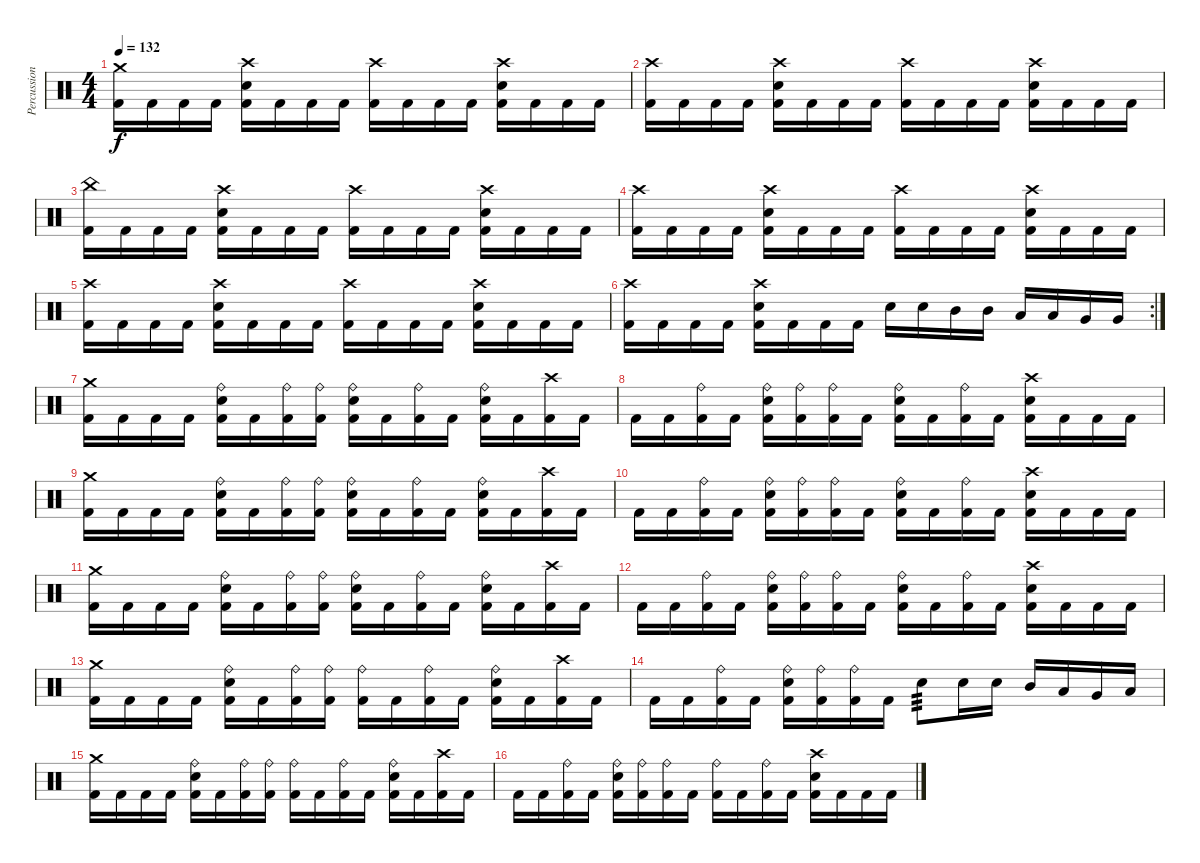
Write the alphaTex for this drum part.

\track ("Percussion" "Percussion") {instrument percussion}
\staff {score}
\articulation defaults
\ts (4 4)
\tempo 132
\clef neutral
\ks c
("Kick (hit) 2" "Crash medium (hit)").16{dy f} "Kick (hit) 2".16 "Kick (hit) 2".16 "Kick (hit) 2".16 ("Snare (hit) 2" "Kick (hit) 2" "Crash high (hit)").16 "Kick (hit) 2".16 "Kick (hit) 2".16 "Kick (hit) 2".16 ("Kick (hit) 2" "Crash high (hit)").16 "Kick (hit) 2".16 "Kick (hit) 2".16 "Kick (hit) 2".16 ("Snare (hit) 2" "Kick (hit) 2" "Crash high (hit)").16 "Kick (hit) 2".16 "Kick (hit) 2".16 "Kick (hit) 2".16 |
("Kick (hit) 2" "Crash high (hit)").16 "Kick (hit) 2".16 "Kick (hit) 2".16 "Kick (hit) 2".16 ("Snare (hit) 2" "Kick (hit) 2" "Crash high (hit)").16 "Kick (hit) 2".16 "Kick (hit) 2".16 "Kick (hit) 2".16 ("Kick (hit) 2" "Crash high (hit)").16 "Kick (hit) 2".16 "Kick (hit) 2".16 "Kick (hit) 2".16 ("Snare (hit) 2" "Kick (hit) 2" "Crash high (hit)").16 "Kick (hit) 2".16 "Kick (hit) 2".16 "Kick (hit) 2".16 |
("Kick (hit) 2" "China (hit)").16 "Kick (hit) 2".16 "Kick (hit) 2".16 "Kick (hit) 2".16 ("Snare (hit) 2" "Kick (hit) 2" "Crash high (hit)").16 "Kick (hit) 2".16 "Kick (hit) 2".16 "Kick (hit) 2".16 ("Kick (hit) 2" "Crash high (hit)").16 "Kick (hit) 2".16 "Kick (hit) 2".16 "Kick (hit) 2".16 ("Snare (hit) 2" "Kick (hit) 2" "Crash high (hit)").16 "Kick (hit) 2".16 "Kick (hit) 2".16 "Kick (hit) 2".16 |
("Kick (hit) 2" "Crash high (hit)").16 "Kick (hit) 2".16 "Kick (hit) 2".16 "Kick (hit) 2".16 ("Snare (hit) 2" "Kick (hit) 2" "Crash high (hit)").16 "Kick (hit) 2".16 "Kick (hit) 2".16 "Kick (hit) 2".16 ("Kick (hit) 2" "Crash high (hit)").16 "Kick (hit) 2".16 "Kick (hit) 2".16 "Kick (hit) 2".16 ("Snare (hit) 2" "Kick (hit) 2" "Crash high (hit)").16 "Kick (hit) 2".16 "Kick (hit) 2".16 "Kick (hit) 2".16 |
("Kick (hit) 2" "Crash high (hit)").16 "Kick (hit) 2".16 "Kick (hit) 2".16 "Kick (hit) 2".16 ("Snare (hit) 2" "Kick (hit) 2" "Crash high (hit)").16 "Kick (hit) 2".16 "Kick (hit) 2".16 "Kick (hit) 2".16 ("Kick (hit) 2" "Crash high (hit)").16 "Kick (hit) 2".16 "Kick (hit) 2".16 "Kick (hit) 2".16 ("Snare (hit) 2" "Kick (hit) 2" "Crash high (hit)").16 "Kick (hit) 2".16 "Kick (hit) 2".16 "Kick (hit) 2".16 |
\rc 2
("Kick (hit) 2" "Crash high (hit)").16 "Kick (hit) 2".16 "Kick (hit) 2".16 "Kick (hit) 2".16 ("Snare (hit) 2" "Kick (hit) 2" "Crash high (hit)").16 "Kick (hit) 2".16 "Kick (hit) 2".16 "Kick (hit) 2".16 "Snare (hit) 2".16 "Snare (hit) 2".16 "Mid Tom (hit)".16 "Mid Tom (hit)".16 "Low Tom (hit)".16 "Low Tom (hit)".16 "Very Low Tom (hit)".16 "Very Low Tom (hit)".16 |
("Kick (hit) 2" "Crash medium (hit)").16 "Kick (hit) 2".16 "Kick (hit) 2".16 "Kick (hit) 2".16 ("Snare (hit) 2" "Kick (hit) 2" "Ride (bell)").16 "Kick (hit) 2".16 ("Kick (hit) 2" "Ride (bell)").16 ("Kick (hit) 2" "Ride (bell)").16 ("Snare (hit) 2" "Kick (hit) 2" "Ride (bell)").16 "Kick (hit) 2".16 ("Kick (hit) 2" "Ride (bell)").16 "Kick (hit) 2".16 ("Snare (hit) 2" "Kick (hit) 2" "Ride (bell)").16 "Kick (hit) 2".16 ("Kick (hit) 2" "Crash high (hit)").16 "Kick (hit) 2".16 |
"Kick (hit) 2".16 "Kick (hit) 2".16 ("Kick (hit) 2" "Ride (bell)").16 "Kick (hit) 2".16 ("Snare (hit) 2" "Kick (hit) 2" "Ride (bell)").16 ("Kick (hit) 2" "Ride (bell)").16 ("Kick (hit) 2" "Ride (bell)").16 "Kick (hit) 2".16 ("Snare (hit) 2" "Kick (hit) 2" "Ride (bell)").16 "Kick (hit) 2".16 ("Kick (hit) 2" "Ride (bell)").16 "Kick (hit) 2".16 ("Snare (hit) 2" "Kick (hit) 2" "Crash high (hit)").16 "Kick (hit) 2".16 "Kick (hit) 2".16 "Kick (hit) 2".16 |
("Kick (hit) 2" "Crash medium (hit)").16 "Kick (hit) 2".16 "Kick (hit) 2".16 "Kick (hit) 2".16 ("Snare (hit) 2" "Kick (hit) 2" "Ride (bell)").16 "Kick (hit) 2".16 ("Kick (hit) 2" "Ride (bell)").16 ("Kick (hit) 2" "Ride (bell)").16 ("Snare (hit) 2" "Kick (hit) 2" "Ride (bell)").16 "Kick (hit) 2".16 ("Kick (hit) 2" "Ride (bell)").16 "Kick (hit) 2".16 ("Snare (hit) 2" "Kick (hit) 2" "Ride (bell)").16 "Kick (hit) 2".16 ("Kick (hit) 2" "Crash high (hit)").16 "Kick (hit) 2".16 |
"Kick (hit) 2".16 "Kick (hit) 2".16 ("Kick (hit) 2" "Ride (bell)").16 "Kick (hit) 2".16 ("Snare (hit) 2" "Kick (hit) 2" "Ride (bell)").16 ("Kick (hit) 2" "Ride (bell)").16 ("Kick (hit) 2" "Ride (bell)").16 "Kick (hit) 2".16 ("Snare (hit) 2" "Kick (hit) 2" "Ride (bell)").16 "Kick (hit) 2".16 ("Kick (hit) 2" "Ride (bell)").16 "Kick (hit) 2".16 ("Snare (hit) 2" "Kick (hit) 2" "Crash high (hit)").16 "Kick (hit) 2".16 "Kick (hit) 2".16 "Kick (hit) 2".16 |
("Kick (hit) 2" "Crash medium (hit)").16 "Kick (hit) 2".16 "Kick (hit) 2".16 "Kick (hit) 2".16 ("Snare (hit) 2" "Kick (hit) 2" "Ride (bell)").16 "Kick (hit) 2".16 ("Kick (hit) 2" "Ride (bell)").16 ("Kick (hit) 2" "Ride (bell)").16 ("Snare (hit) 2" "Kick (hit) 2" "Ride (bell)").16 "Kick (hit) 2".16 ("Kick (hit) 2" "Ride (bell)").16 "Kick (hit) 2".16 ("Snare (hit) 2" "Kick (hit) 2" "Ride (bell)").16 "Kick (hit) 2".16 ("Kick (hit) 2" "Crash high (hit)").16 "Kick (hit) 2".16 |
"Kick (hit) 2".16 "Kick (hit) 2".16 ("Kick (hit) 2" "Ride (bell)").16 "Kick (hit) 2".16 ("Snare (hit) 2" "Kick (hit) 2" "Ride (bell)").16 ("Kick (hit) 2" "Ride (bell)").16 ("Kick (hit) 2" "Ride (bell)").16 "Kick (hit) 2".16 ("Snare (hit) 2" "Kick (hit) 2" "Ride (bell)").16 "Kick (hit) 2".16 ("Kick (hit) 2" "Ride (bell)").16 "Kick (hit) 2".16 ("Snare (hit) 2" "Kick (hit) 2" "Crash high (hit)").16 "Kick (hit) 2".16 "Kick (hit) 2".16 "Kick (hit) 2".16 |
("Kick (hit) 2" "Crash medium (hit)").16 "Kick (hit) 2".16 "Kick (hit) 2".16 "Kick (hit) 2".16 ("Snare (hit) 2" "Kick (hit) 2" "Ride (bell)").16 "Kick (hit) 2".16 ("Kick (hit) 2" "Ride (bell)").16 ("Kick (hit) 2" "Ride (bell)").16 ("Kick (hit) 2" "Ride (bell)").16 "Kick (hit) 2".16 ("Kick (hit) 2" "Ride (bell)").16 "Kick (hit) 2".16 ("Snare (hit) 2" "Kick (hit) 2" "Ride (bell)").16 "Kick (hit) 2".16 ("Kick (hit) 2" "Crash high (hit)").16 "Kick (hit) 2".16 |
"Kick (hit) 2".16 "Kick (hit) 2".16 ("Kick (hit) 2" "Ride (bell)").16 "Kick (hit) 2".16 ("Snare (hit) 2" "Kick (hit) 2" "Ride (bell)").16 ("Kick (hit) 2" "Ride (bell)").16 ("Kick (hit) 2" "Ride (bell)").16 "Kick (hit) 2".16 "Snare (hit) 2".8{tp 3} "Snare (hit) 2".16 "Snare (hit) 2".16 "Mid Tom (hit)".16 "Low Tom (hit)".16 "Very Low Tom (hit)".16 "Low Floor Tom (hit)".16 |
("Kick (hit) 2" "Crash medium (hit)").16 "Kick (hit) 2".16 "Kick (hit) 2".16 "Kick (hit) 2".16 ("Snare (hit) 2" "Kick (hit) 2" "Ride (bell)").16 "Kick (hit) 2".16 ("Kick (hit) 2" "Ride (bell)").16 ("Kick (hit) 2" "Ride (bell)").16 ("Kick (hit) 2" "Ride (bell)").16 "Kick (hit) 2".16 ("Kick (hit) 2" "Ride (bell)").16 "Kick (hit) 2".16 ("Snare (hit) 2" "Kick (hit) 2" "Ride (bell)").16 "Kick (hit) 2".16 ("Kick (hit) 2" "Crash high (hit)").16 "Kick (hit) 2".16 |
"Kick (hit) 2".16 "Kick (hit) 2".16 ("Kick (hit) 2" "Ride (bell)").16 "Kick (hit) 2".16 ("Snare (hit) 2" "Kick (hit) 2" "Ride (bell)").16 ("Kick (hit) 2" "Ride (bell)").16 ("Kick (hit) 2" "Ride (bell)").16 "Kick (hit) 2".16 ("Kick (hit) 2" "Ride (bell)").16 "Kick (hit) 2".16 ("Kick (hit) 2" "Ride (bell)").16 "Kick (hit) 2".16 ("Snare (hit) 2" "Kick (hit) 2" "Crash high (hit)").16 "Kick (hit) 2".16 "Kick (hit) 2".16 "Kick (hit) 2".16
